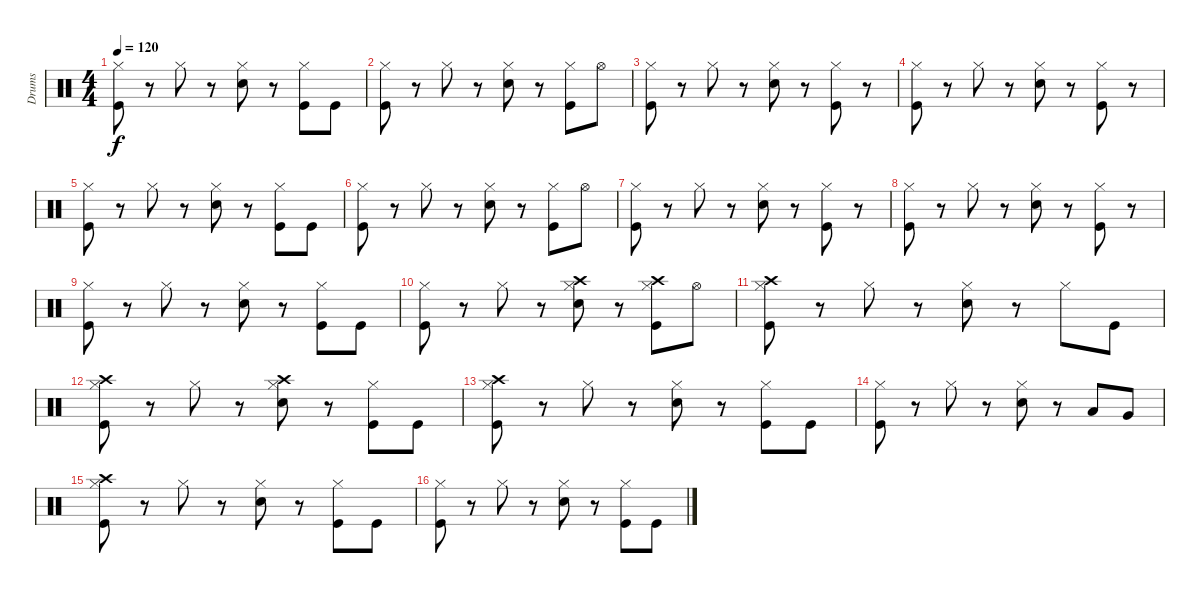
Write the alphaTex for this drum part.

\track ("Drums" "Drums") {instrument percussion}
\staff {score}
\articulation defaults
\ts (4 4)
\tempo 120
\clef neutral
\ks c
("Hi-Hat (closed)" "Kick (hit)").8{dy f} r.8 "Hi-Hat (closed)".8 r.8 ("Hi-Hat (closed)" "Snare (hit) 2").8 r.8 ("Hi-Hat (closed)" "Kick (hit)").8 "Kick (hit)".8 |
("Hi-Hat (closed)" "Kick (hit)").8 r.8 "Hi-Hat (closed)".8 r.8 ("Hi-Hat (closed)" "Snare (hit) 2").8 r.8 ("Hi-Hat (closed)" "Kick (hit)").8 "Hi-Hat (open)".8 |
("Hi-Hat (closed)" "Kick (hit)").8 r.8 "Hi-Hat (closed)".8 r.8 ("Hi-Hat (closed)" "Snare (hit) 2").8 r.8 ("Hi-Hat (closed)" "Kick (hit)").8 r.8 |
("Hi-Hat (closed)" "Kick (hit)").8 r.8 "Hi-Hat (closed)".8 r.8 ("Hi-Hat (closed)" "Snare (hit) 2").8 r.8 ("Hi-Hat (closed)" "Kick (hit)").8 r.8 |
("Hi-Hat (closed)" "Kick (hit)").8 r.8 "Hi-Hat (closed)".8 r.8 ("Hi-Hat (closed)" "Snare (hit) 2").8 r.8 ("Hi-Hat (closed)" "Kick (hit)").8 "Kick (hit)".8 |
("Hi-Hat (closed)" "Kick (hit)").8 r.8 "Hi-Hat (closed)".8 r.8 ("Hi-Hat (closed)" "Snare (hit) 2").8 r.8 ("Hi-Hat (closed)" "Kick (hit)").8 "Hi-Hat (open)".8 |
("Hi-Hat (closed)" "Kick (hit)").8 r.8 "Hi-Hat (closed)".8 r.8 ("Hi-Hat (closed)" "Snare (hit) 2").8 r.8 ("Hi-Hat (closed)" "Kick (hit)").8 r.8 |
("Hi-Hat (closed)" "Kick (hit)").8 r.8 "Hi-Hat (closed)".8 r.8 ("Hi-Hat (closed)" "Snare (hit) 2").8 r.8 ("Hi-Hat (closed)" "Kick (hit)").8 r.8 |
("Hi-Hat (closed)" "Kick (hit)").8 r.8 "Hi-Hat (closed)".8 r.8 ("Hi-Hat (closed)" "Snare (hit) 2").8 r.8 ("Hi-Hat (closed)" "Kick (hit)").8 "Kick (hit)".8 |
("Hi-Hat (closed)" "Kick (hit)").8 r.8 "Hi-Hat (closed)".8 r.8 ("Crash high (hit)" "Hi-Hat (closed)" "Snare (hit) 2").8 r.8 ("Crash high (hit)" "Hi-Hat (closed)" "Kick (hit)").8 "Hi-Hat (open)".8 |
("Crash high (hit)" "Hi-Hat (closed)" "Kick (hit)").8 r.8 "Hi-Hat (closed)".8 r.8 ("Hi-Hat (closed)" "Snare (hit) 2").8 r.8 "Hi-Hat (closed)".8 "Kick (hit)".8 |
("Crash high (hit)" "Hi-Hat (closed)" "Kick (hit)").8 r.8 "Hi-Hat (closed)".8 r.8 ("Crash high (hit)" "Hi-Hat (closed)" "Snare (hit) 2").8 r.8 ("Hi-Hat (closed)" "Kick (hit)").8 "Kick (hit)".8 |
("Crash high (hit)" "Hi-Hat (closed)" "Kick (hit)").8 r.8 "Hi-Hat (closed)".8 r.8 ("Hi-Hat (closed)" "Snare (hit) 2").8 r.8 ("Hi-Hat (closed)" "Kick (hit)").8 "Kick (hit)".8 |
("Hi-Hat (closed)" "Kick (hit)").8 r.8 "Hi-Hat (closed)".8 r.8 ("Hi-Hat (closed)" "Snare (hit) 2").8 r.8 "Low Tom (hit)".8 "Very Low Tom (hit)".8 |
("Crash high (hit)" "Hi-Hat (closed)" "Kick (hit)").8 r.8 "Hi-Hat (closed)".8 r.8 ("Hi-Hat (closed)" "Snare (hit) 2").8 r.8 ("Hi-Hat (closed)" "Kick (hit)").8 "Kick (hit)".8 |
("Hi-Hat (closed)" "Kick (hit)").8 r.8 "Hi-Hat (closed)".8 r.8 ("Hi-Hat (closed)" "Snare (hit) 2").8 r.8 ("Hi-Hat (closed)" "Kick (hit)").8 "Kick (hit)".8
